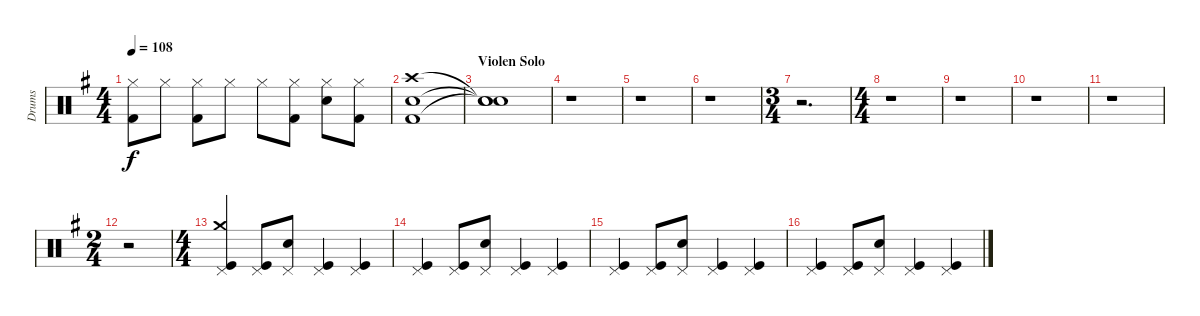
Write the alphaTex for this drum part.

\track ("Drums" "Drums") {instrument percussion}
\staff {score}
\articulation defaults
\ts (4 4)
\tempo 108
\clef neutral
\ks g
("Hi-Hat (closed)" "Kick (hit) 2").8{dy f} "Hi-Hat (closed)".8 ("Hi-Hat (closed)" "Kick (hit) 2").8 "Hi-Hat (closed)".8 "Hi-Hat (closed)".8 ("Hi-Hat (closed)" "Kick (hit) 2").8 ("Hi-Hat (closed)" "Snare (hit) 2").8 ("Hi-Hat (closed)" "Kick (hit) 2").8 |
("Crash high (hit)" "Snare (hit) 2" "Kick (hit) 2").1 |
\section ("" "Violen Solo")
("Snare (hit)"{t} "Snare (hit)"{t} "Snare (hit)"{t}).1 |
r.1 |
r.1 |
r.1 |
\ts (3 4)
r.2{d} |
\ts (4 4)
r.1 |
r.1 |
r.1 |
r.1 |
\ts (2 4)
r.2 |
\ts (4 4)
("Pedal Hi-Hat (hit)" "Crash medium (hit)" "Kick (hit)").4 ("Pedal Hi-Hat (hit)" "Kick (hit)").8 ("Pedal Hi-Hat (hit)" "Electric Snare (hit)").8 ("Pedal Hi-Hat (hit)" "Kick (hit)").4 ("Pedal Hi-Hat (hit)" "Kick (hit)").4 |
("Pedal Hi-Hat (hit)" "Kick (hit)").4 ("Pedal Hi-Hat (hit)" "Kick (hit)").8 ("Pedal Hi-Hat (hit)" "Electric Snare (hit)").8 ("Pedal Hi-Hat (hit)" "Kick (hit)").4 ("Pedal Hi-Hat (hit)" "Kick (hit)").4 |
("Pedal Hi-Hat (hit)" "Kick (hit)").4 ("Pedal Hi-Hat (hit)" "Kick (hit)").8 ("Pedal Hi-Hat (hit)" "Electric Snare (hit)").8 ("Pedal Hi-Hat (hit)" "Kick (hit)").4 ("Pedal Hi-Hat (hit)" "Kick (hit)").4 |
("Pedal Hi-Hat (hit)" "Kick (hit)").4 ("Pedal Hi-Hat (hit)" "Kick (hit)").8 ("Pedal Hi-Hat (hit)" "Electric Snare (hit)").8 ("Pedal Hi-Hat (hit)" "Kick (hit)").4 ("Pedal Hi-Hat (hit)" "Kick (hit)").4
